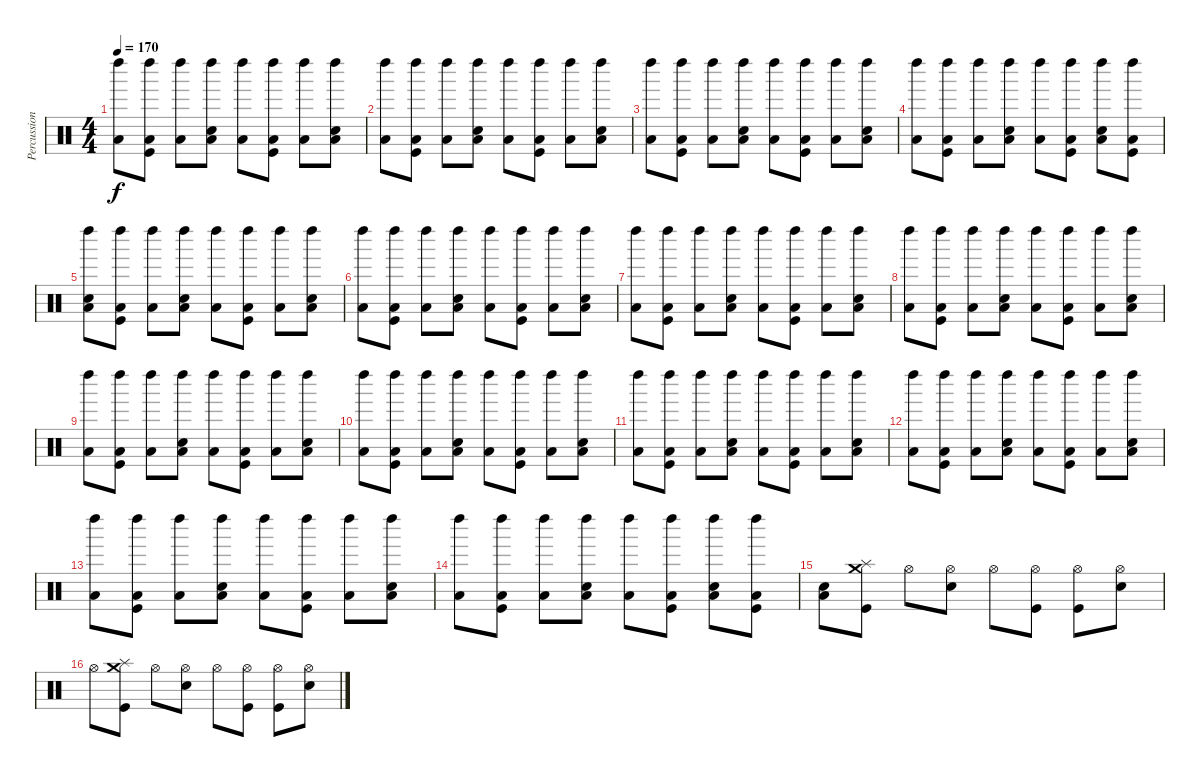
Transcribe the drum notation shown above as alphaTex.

\track ("Percussion" "Percussion") {instrument percussion}
\staff {score}
\articulation defaults
\ts (4 4)
\tempo 170
\clef neutral
\ks c
("Left Maraca (hit)" "Low Floor Tom (hit)").8{dy f} ("Left Maraca (hit)" "Low Floor Tom (hit)" "Kick (hit)").8 ("Left Maraca (hit)" "Low Floor Tom (hit)").8 ("Left Maraca (hit)" "Low Floor Tom (hit)" "Electric Snare (hit)").8 ("Left Maraca (hit)" "Low Floor Tom (hit)").8 ("Left Maraca (hit)" "Low Floor Tom (hit)" "Kick (hit)").8 ("Left Maraca (hit)" "Low Floor Tom (hit)").8 ("Left Maraca (hit)" "Low Floor Tom (hit)" "Electric Snare (hit)").8 |
("Left Maraca (hit)" "Low Floor Tom (hit)").8 ("Left Maraca (hit)" "Low Floor Tom (hit)" "Kick (hit)").8 ("Left Maraca (hit)" "Low Floor Tom (hit)").8 ("Left Maraca (hit)" "Low Floor Tom (hit)" "Electric Snare (hit)").8 ("Left Maraca (hit)" "Low Floor Tom (hit)").8 ("Left Maraca (hit)" "Low Floor Tom (hit)" "Kick (hit)").8 ("Left Maraca (hit)" "Low Floor Tom (hit)").8 ("Left Maraca (hit)" "Low Floor Tom (hit)" "Electric Snare (hit)").8 |
("Left Maraca (hit)" "Low Floor Tom (hit)").8 ("Left Maraca (hit)" "Low Floor Tom (hit)" "Kick (hit)").8 ("Left Maraca (hit)" "Low Floor Tom (hit)").8 ("Left Maraca (hit)" "Low Floor Tom (hit)" "Electric Snare (hit)").8 ("Left Maraca (hit)" "Low Floor Tom (hit)").8 ("Left Maraca (hit)" "Low Floor Tom (hit)" "Kick (hit)").8 ("Left Maraca (hit)" "Low Floor Tom (hit)").8 ("Left Maraca (hit)" "Low Floor Tom (hit)" "Electric Snare (hit)").8 |
("Left Maraca (hit)" "Low Floor Tom (hit)").8 ("Left Maraca (hit)" "Low Floor Tom (hit)" "Kick (hit)").8 ("Left Maraca (hit)" "Low Floor Tom (hit)").8 ("Left Maraca (hit)" "Low Floor Tom (hit)" "Electric Snare (hit)").8 ("Left Maraca (hit)" "Low Floor Tom (hit)").8 ("Left Maraca (hit)" "Low Floor Tom (hit)" "Kick (hit)").8 ("Left Maraca (hit)" "Low Floor Tom (hit)" "Electric Snare (hit)").8 ("Left Maraca (hit)" "Low Floor Tom (hit)" "Kick (hit)").8 |
("Left Maraca (hit)" "Low Floor Tom (hit)" "Electric Snare (hit)").8 ("Left Maraca (hit)" "Low Floor Tom (hit)" "Kick (hit)").8 ("Left Maraca (hit)" "Low Floor Tom (hit)").8 ("Left Maraca (hit)" "Low Floor Tom (hit)" "Electric Snare (hit)").8 ("Left Maraca (hit)" "Low Floor Tom (hit)").8 ("Left Maraca (hit)" "Low Floor Tom (hit)" "Kick (hit)").8 ("Left Maraca (hit)" "Low Floor Tom (hit)").8 ("Left Maraca (hit)" "Low Floor Tom (hit)" "Electric Snare (hit)").8 |
("Left Maraca (hit)" "Low Floor Tom (hit)").8 ("Left Maraca (hit)" "Low Floor Tom (hit)" "Kick (hit)").8 ("Left Maraca (hit)" "Low Floor Tom (hit)").8 ("Left Maraca (hit)" "Low Floor Tom (hit)" "Electric Snare (hit)").8 ("Left Maraca (hit)" "Low Floor Tom (hit)").8 ("Left Maraca (hit)" "Low Floor Tom (hit)" "Kick (hit)").8 ("Left Maraca (hit)" "Low Floor Tom (hit)").8 ("Left Maraca (hit)" "Low Floor Tom (hit)" "Electric Snare (hit)").8 |
("Left Maraca (hit)" "Low Floor Tom (hit)").8 ("Left Maraca (hit)" "Low Floor Tom (hit)" "Kick (hit)").8 ("Left Maraca (hit)" "Low Floor Tom (hit)").8 ("Left Maraca (hit)" "Low Floor Tom (hit)" "Electric Snare (hit)").8 ("Left Maraca (hit)" "Low Floor Tom (hit)").8 ("Left Maraca (hit)" "Low Floor Tom (hit)" "Kick (hit)").8 ("Left Maraca (hit)" "Low Floor Tom (hit)").8 ("Left Maraca (hit)" "Low Floor Tom (hit)" "Electric Snare (hit)").8 |
("Left Maraca (hit)" "Low Floor Tom (hit)").8 ("Left Maraca (hit)" "Low Floor Tom (hit)" "Kick (hit)").8 ("Left Maraca (hit)" "Low Floor Tom (hit)").8 ("Left Maraca (hit)" "Low Floor Tom (hit)" "Electric Snare (hit)").8 ("Left Maraca (hit)" "Low Floor Tom (hit)").8 ("Left Maraca (hit)" "Low Floor Tom (hit)" "Kick (hit)").8 ("Left Maraca (hit)" "Low Floor Tom (hit)").8 ("Left Maraca (hit)" "Low Floor Tom (hit)" "Electric Snare (hit)").8 |
("Left Maraca (hit)" "Low Floor Tom (hit)").8 ("Left Maraca (hit)" "Low Floor Tom (hit)" "Kick (hit)").8 ("Left Maraca (hit)" "Low Floor Tom (hit)").8 ("Left Maraca (hit)" "Low Floor Tom (hit)" "Electric Snare (hit)").8 ("Left Maraca (hit)" "Low Floor Tom (hit)").8 ("Left Maraca (hit)" "Low Floor Tom (hit)" "Kick (hit)").8 ("Left Maraca (hit)" "Low Floor Tom (hit)").8 ("Left Maraca (hit)" "Low Floor Tom (hit)" "Electric Snare (hit)").8 |
("Left Maraca (hit)" "Low Floor Tom (hit)").8 ("Left Maraca (hit)" "Low Floor Tom (hit)" "Kick (hit)").8 ("Left Maraca (hit)" "Low Floor Tom (hit)").8 ("Left Maraca (hit)" "Low Floor Tom (hit)" "Electric Snare (hit)").8 ("Left Maraca (hit)" "Low Floor Tom (hit)").8 ("Left Maraca (hit)" "Low Floor Tom (hit)" "Kick (hit)").8 ("Left Maraca (hit)" "Low Floor Tom (hit)").8 ("Left Maraca (hit)" "Low Floor Tom (hit)" "Electric Snare (hit)").8 |
("Left Maraca (hit)" "Low Floor Tom (hit)").8 ("Left Maraca (hit)" "Low Floor Tom (hit)" "Kick (hit)").8 ("Left Maraca (hit)" "Low Floor Tom (hit)").8 ("Left Maraca (hit)" "Low Floor Tom (hit)" "Electric Snare (hit)").8 ("Left Maraca (hit)" "Low Floor Tom (hit)").8 ("Left Maraca (hit)" "Low Floor Tom (hit)" "Kick (hit)").8 ("Left Maraca (hit)" "Low Floor Tom (hit)").8 ("Left Maraca (hit)" "Low Floor Tom (hit)" "Electric Snare (hit)").8 |
("Left Maraca (hit)" "Low Floor Tom (hit)").8 ("Left Maraca (hit)" "Low Floor Tom (hit)" "Kick (hit)").8 ("Left Maraca (hit)" "Low Floor Tom (hit)").8 ("Left Maraca (hit)" "Low Floor Tom (hit)" "Electric Snare (hit)").8 ("Left Maraca (hit)" "Low Floor Tom (hit)").8 ("Left Maraca (hit)" "Low Floor Tom (hit)" "Kick (hit)").8 ("Left Maraca (hit)" "Low Floor Tom (hit)").8 ("Left Maraca (hit)" "Low Floor Tom (hit)" "Electric Snare (hit)").8 |
("Left Maraca (hit)" "Low Floor Tom (hit)").8 ("Left Maraca (hit)" "Low Floor Tom (hit)" "Kick (hit)").8 ("Left Maraca (hit)" "Low Floor Tom (hit)").8 ("Left Maraca (hit)" "Low Floor Tom (hit)" "Electric Snare (hit)").8 ("Left Maraca (hit)" "Low Floor Tom (hit)").8 ("Left Maraca (hit)" "Low Floor Tom (hit)" "Kick (hit)").8 ("Left Maraca (hit)" "Low Floor Tom (hit)").8 ("Left Maraca (hit)" "Low Floor Tom (hit)" "Electric Snare (hit)").8 |
("Left Maraca (hit)" "Low Floor Tom (hit)").8 ("Left Maraca (hit)" "Low Floor Tom (hit)" "Kick (hit)").8 ("Left Maraca (hit)" "Low Floor Tom (hit)").8 ("Left Maraca (hit)" "Low Floor Tom (hit)" "Electric Snare (hit)").8 ("Left Maraca (hit)" "Low Floor Tom (hit)").8 ("Left Maraca (hit)" "Low Floor Tom (hit)" "Kick (hit)").8 ("Left Maraca (hit)" "Low Floor Tom (hit)" "Electric Snare (hit)").8 ("Left Maraca (hit)" "Low Floor Tom (hit)" "Kick (hit)").8 |
("Low Floor Tom (hit)" "Electric Snare (hit)").8 ("Crash medium (hit)" "Splash (hit)" "Kick (hit)").8 "Hi-Hat (open)".8 ("Hi-Hat (open)" "Electric Snare (hit)").8 "Hi-Hat (open)".8 ("Hi-Hat (open)" "Kick (hit)").8 ("Hi-Hat (open)" "Kick (hit)").8 ("Hi-Hat (open)" "Electric Snare (hit)").8 |
"Hi-Hat (open)".8 ("Splash (hit)" "Crash medium (hit)" "Kick (hit)").8 "Hi-Hat (open)".8 ("Hi-Hat (open)" "Electric Snare (hit)").8 "Hi-Hat (open)".8 ("Hi-Hat (open)" "Kick (hit)").8 ("Hi-Hat (open)" "Kick (hit)").8 ("Hi-Hat (open)" "Electric Snare (hit)").8
